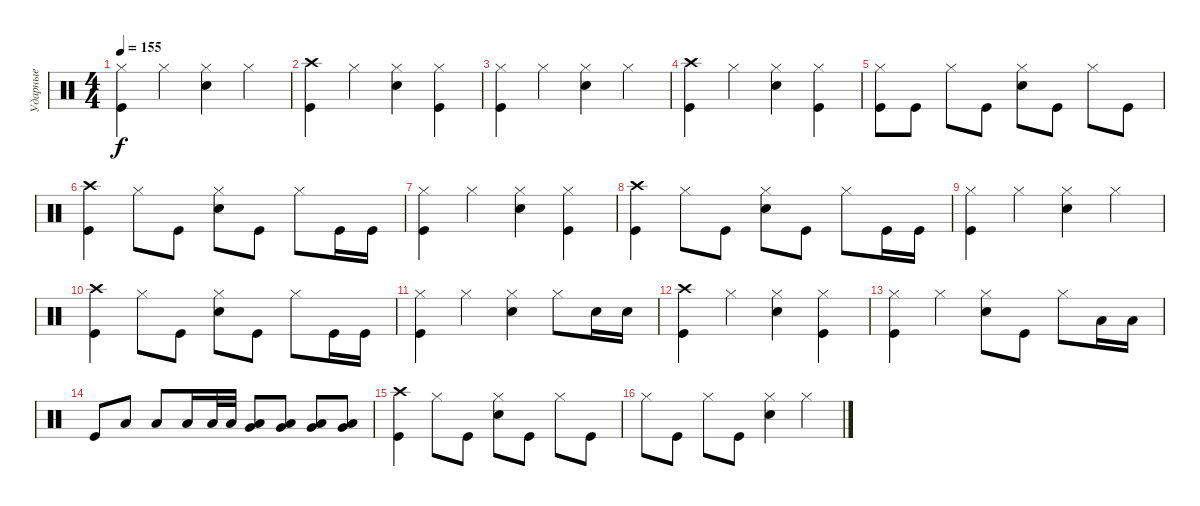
\track ("Ударные" "Ударные") {instrument percussion}
\staff {score}
\articulation defaults
\ts (4 4)
\tempo 155
\clef neutral
\ks c
("Hi-Hat (closed)" "Kick (hit)").4{dy f} "Hi-Hat (closed)".4 ("Hi-Hat (closed)" "Electric Snare (hit)").4 "Hi-Hat (closed)".4 |
("Crash high (hit)" "Kick (hit)").4 "Hi-Hat (closed)".4 ("Hi-Hat (closed)" "Electric Snare (hit)").4 ("Hi-Hat (closed)" "Kick (hit)").4 |
("Hi-Hat (closed)" "Kick (hit)").4 "Hi-Hat (closed)".4 ("Hi-Hat (closed)" "Electric Snare (hit)").4 "Hi-Hat (closed)".4 |
("Crash high (hit)" "Kick (hit)").4 "Hi-Hat (closed)".4 ("Hi-Hat (closed)" "Electric Snare (hit)").4 ("Hi-Hat (closed)" "Kick (hit)").4 |
("Hi-Hat (closed)" "Kick (hit)").8 "Kick (hit)".8 "Hi-Hat (closed)".8 "Kick (hit)".8 ("Hi-Hat (closed)" "Electric Snare (hit)").8 "Kick (hit)".8 "Hi-Hat (closed)".8 "Kick (hit)".8 |
("Crash high (hit)" "Kick (hit)").4 "Hi-Hat (closed)".8 "Kick (hit)".8 ("Hi-Hat (closed)" "Electric Snare (hit)").8 "Kick (hit)".8 "Hi-Hat (closed)".8 "Kick (hit)".16 "Kick (hit)".16 |
("Hi-Hat (closed)" "Kick (hit)").4 "Hi-Hat (closed)".4 ("Hi-Hat (closed)" "Electric Snare (hit)").4 ("Hi-Hat (closed)" "Kick (hit)").4 |
("Crash high (hit)" "Kick (hit)").4 "Hi-Hat (closed)".8 "Kick (hit)".8 ("Hi-Hat (closed)" "Electric Snare (hit)").8 "Kick (hit)".8 "Hi-Hat (closed)".8 "Kick (hit)".16 "Kick (hit)".16 |
("Hi-Hat (closed)" "Kick (hit)").4 "Hi-Hat (closed)".4 ("Hi-Hat (closed)" "Electric Snare (hit)").4 "Hi-Hat (closed)".4 |
("Crash high (hit)" "Kick (hit)").4 "Hi-Hat (closed)".8 "Kick (hit)".8 ("Hi-Hat (closed)" "Electric Snare (hit)").8 "Kick (hit)".8 "Hi-Hat (closed)".8 "Kick (hit)".16 "Kick (hit)".16 |
("Hi-Hat (closed)" "Kick (hit)").4 "Hi-Hat (closed)".4 ("Hi-Hat (closed)" "Electric Snare (hit)").4 "Hi-Hat (closed)".8 "Electric Snare (hit)".16 "Electric Snare (hit)".16 |
("Crash high (hit)" "Kick (hit)").4 "Hi-Hat (closed)".4 ("Hi-Hat (closed)" "Electric Snare (hit)").4 ("Hi-Hat (closed)" "Kick (hit)").4 |
("Hi-Hat (closed)" "Kick (hit)").4 "Hi-Hat (closed)".4 ("Hi-Hat (closed)" "Electric Snare (hit)").8 "Kick (hit)".8 "Hi-Hat (closed)".8 "Low Tom (hit)".16 "Low Tom (hit)".16 |
"Kick (hit)".8 "Low Tom (hit)".8 "Low Tom (hit)".8 "Low Tom (hit)".16 "Low Tom (hit)".32 "Low Tom (hit)".32 ("Very Low Tom (hit)" "Low Tom (hit)").8 ("Very Low Tom (hit)" "Low Tom (hit)").8 ("Very Low Tom (hit)" "Low Tom (hit)").8 ("Very Low Tom (hit)" "Low Tom (hit)").8 |
("Crash high (hit)" "Kick (hit)").4 "Hi-Hat (closed)".8 "Kick (hit)".8 ("Hi-Hat (closed)" "Electric Snare (hit)").8 "Kick (hit)".8 "Hi-Hat (closed)".8 "Kick (hit)".8 |
"Hi-Hat (closed)".8 "Kick (hit)".8 "Hi-Hat (closed)".8 "Kick (hit)".8 ("Hi-Hat (closed)" "Electric Snare (hit)").4 "Hi-Hat (closed)".4
